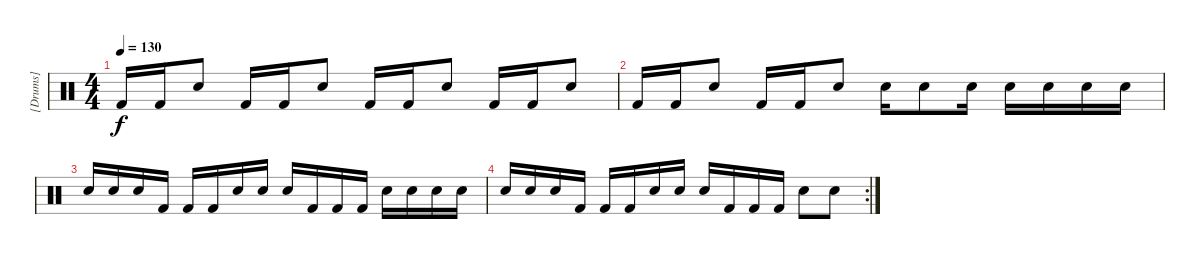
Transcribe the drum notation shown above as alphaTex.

\track ("[Drums]" "[Drums]") {instrument percussion}
\staff {score}
\articulation defaults
\ts (4 4)
\tempo 130
\clef neutral
\ks c "Kick (hit) 2".16{dy f} "Kick (hit) 2".16 "Electric Snare (hit)".8 "Kick (hit) 2".16 "Kick (hit) 2".16 "Electric Snare (hit)".8 "Kick (hit) 2".16 "Kick (hit) 2".16 "Electric Snare (hit)".8 "Kick (hit) 2".16 "Kick (hit) 2".16 "Electric Snare (hit)".8
|
"Kick (hit) 2".16 "Kick (hit) 2".16 "Electric Snare (hit)".8 "Kick (hit) 2".16 "Kick (hit) 2".16 "Electric Snare (hit)".8 "Electric Snare (hit)".16 "Electric Snare (hit)".8 "Electric Snare (hit)".16 "Electric Snare (hit)".16 "Electric Snare (hit)".16 "Electric Snare (hit)".16 "Electric Snare (hit)".16 |
"Electric Snare (hit)".16 "Electric Snare (hit)".16 "Electric Snare (hit)".16 "Kick (hit) 2".16 "Kick (hit) 2".16 "Kick (hit) 2".16 "Electric Snare (hit)".16 "Electric Snare (hit)".16 "Electric Snare (hit)".16 "Kick (hit) 2".16 "Kick (hit) 2".16 "Kick (hit) 2".16 "Electric Snare (hit)".16 "Electric Snare (hit)".16 "Electric Snare (hit)".16 "Electric Snare (hit)".16 |
\rc 2 "Electric Snare (hit)".16 "Electric Snare (hit)".16 "Electric Snare (hit)".16 "Kick (hit) 2".16 "Kick (hit) 2".16 "Kick (hit) 2".16 "Electric Snare (hit)".16 "Electric Snare (hit)".16 "Electric Snare (hit)".16 "Kick (hit) 2".16 "Kick (hit) 2".16 "Kick (hit) 2".16 "Electric Snare (hit)".8 "Electric Snare (hit)".8
